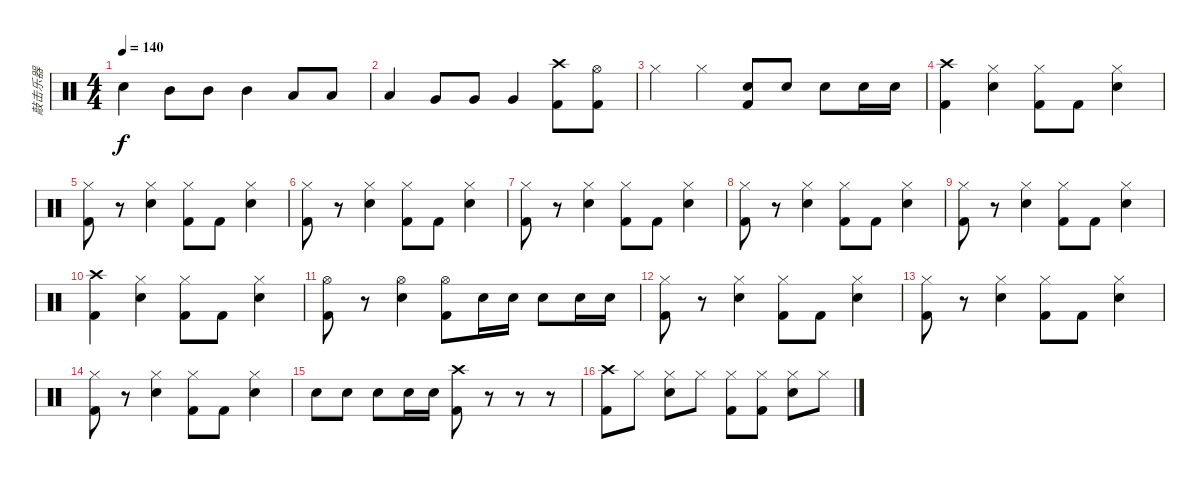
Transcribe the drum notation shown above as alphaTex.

\track ("敲击乐器" "敲击乐器") {instrument percussion}
\staff {score}
\articulation defaults
\ts (4 4)
\tempo 140
\clef neutral
\ks c "Electric Snare (hit)".4{dy f} "Mid Tom (hit)".8 "Mid Tom (hit)".8 "Mid Tom (hit)".4 "Low Tom (hit)".8 "Low Tom (hit)".8
|
"Low Tom (hit)".4 "Very Low Tom (hit)".8 "Very Low Tom (hit)".8 "Very Low Tom (hit)".4 ("Crash high (hit)" "Kick (hit) 2").8 ("Hi-Hat (open)" "Kick (hit) 2").8 |
"Hi-Hat (closed)".4 "Hi-Hat (closed)".4 ("Electric Snare (hit)" "Kick (hit) 2").8 "Electric Snare (hit)".8 "Electric Snare (hit)".8 "Electric Snare (hit)".16 "Electric Snare (hit)".16 |
("Crash high (hit)" "Kick (hit) 2").4 ("Hi-Hat (closed)" "Electric Snare (hit)").4 ("Hi-Hat (closed)" "Kick (hit) 2").8 "Kick (hit) 2".8 ("Hi-Hat (closed)" "Electric Snare (hit)").4 |
("Hi-Hat (closed)" "Kick (hit) 2").8 r.8 ("Hi-Hat (closed)" "Electric Snare (hit)").4 ("Hi-Hat (closed)" "Kick (hit) 2").8 "Kick (hit) 2".8 ("Hi-Hat (closed)" "Electric Snare (hit)").4 |
("Hi-Hat (closed)" "Kick (hit) 2").8 r.8 ("Hi-Hat (closed)" "Electric Snare (hit)").4 ("Hi-Hat (closed)" "Kick (hit) 2").8 "Kick (hit) 2".8 ("Hi-Hat (closed)" "Electric Snare (hit)").4 |
("Hi-Hat (closed)" "Kick (hit) 2").8 r.8 ("Hi-Hat (closed)" "Electric Snare (hit)").4 ("Hi-Hat (closed)" "Kick (hit) 2").8 "Kick (hit) 2".8 ("Hi-Hat (closed)" "Electric Snare (hit)").4 |
("Hi-Hat (closed)" "Kick (hit) 2").8 r.8 ("Hi-Hat (closed)" "Electric Snare (hit)").4 ("Hi-Hat (closed)" "Kick (hit) 2").8 "Kick (hit) 2".8 ("Hi-Hat (closed)" "Electric Snare (hit)").4 |
("Hi-Hat (closed)" "Kick (hit) 2").8 r.8 ("Hi-Hat (closed)" "Electric Snare (hit)").4 ("Hi-Hat (closed)" "Kick (hit) 2").8 "Kick (hit) 2".8 ("Hi-Hat (closed)" "Electric Snare (hit)").4 |
("Crash high (hit)" "Kick (hit) 2").4 ("Hi-Hat (closed)" "Electric Snare (hit)").4 ("Hi-Hat (closed)" "Kick (hit) 2").8 "Kick (hit) 2".8 ("Hi-Hat (closed)" "Electric Snare (hit)").4 |
("Hi-Hat (open)" "Kick (hit) 2").8 r.8 ("Hi-Hat (open)" "Electric Snare (hit)").4 ("Hi-Hat (open)" "Kick (hit) 2").8 "Electric Snare (hit)".16 "Electric Snare (hit)".16 "Electric Snare (hit)".8 "Electric Snare (hit)".16 "Electric Snare (hit)".16 |
("Hi-Hat (closed)" "Kick (hit) 2").8 r.8 ("Hi-Hat (closed)" "Electric Snare (hit)").4 ("Hi-Hat (closed)" "Kick (hit) 2").8 "Kick (hit) 2".8 ("Hi-Hat (closed)" "Electric Snare (hit)").4 |
("Hi-Hat (closed)" "Kick (hit) 2").8 r.8 ("Hi-Hat (closed)" "Electric Snare (hit)").4 ("Hi-Hat (closed)" "Kick (hit) 2").8 "Kick (hit) 2".8 ("Hi-Hat (closed)" "Electric Snare (hit)").4 |
("Hi-Hat (closed)" "Kick (hit) 2").8 r.8 ("Hi-Hat (closed)" "Electric Snare (hit)").4 ("Hi-Hat (closed)" "Kick (hit) 2").8 "Kick (hit) 2".8 ("Hi-Hat (closed)" "Electric Snare (hit)").4 |
"Electric Snare (hit)".8 "Electric Snare (hit)".8 "Electric Snare (hit)".8 "Electric Snare (hit)".16 "Electric Snare (hit)".16 ("Crash high (hit)" "Kick (hit) 2").8 r.8 r.8 r.8 |
("Crash high (hit)" "Kick (hit) 2").8 "Hi-Hat (closed)".8 ("Hi-Hat (closed)" "Electric Snare (hit)").8 "Hi-Hat (closed)".8 ("Hi-Hat (closed)" "Kick (hit) 2").8 ("Hi-Hat (closed)" "Kick (hit) 2").8 ("Hi-Hat (closed)" "Electric Snare (hit)").8 "Hi-Hat (closed)".8
